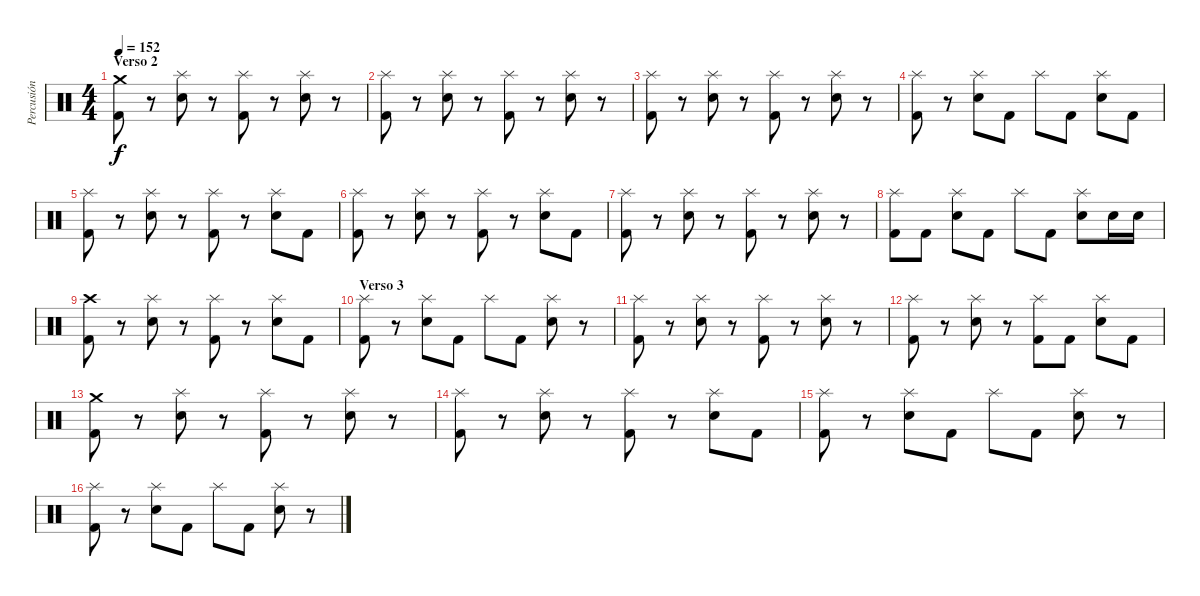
\track ("Percusión" "Percusión") {instrument percussion}
\staff {score}
\articulation defaults
\ts (4 4)
\section ("" "Verso 2")
\tempo 152
\clef neutral
\ks c
("Crash medium (hit)" "Kick (hit) 2").8{dy f} r.8 ("Splash (hit)" "Snare (hit) 2").8 r.8 ("Splash (hit)" "Kick (hit) 2").8 r.8 ("Splash (hit)" "Snare (hit) 2").8 r.8 |
("Splash (hit)" "Kick (hit) 2").8 r.8 ("Splash (hit)" "Snare (hit) 2").8 r.8 ("Splash (hit)" "Kick (hit) 2").8 r.8 ("Splash (hit)" "Snare (hit) 2").8 r.8 |
("Splash (hit)" "Kick (hit) 2").8 r.8 ("Splash (hit)" "Snare (hit) 2").8 r.8 ("Splash (hit)" "Kick (hit) 2").8 r.8 ("Splash (hit)" "Snare (hit) 2").8 r.8 |
("Splash (hit)" "Kick (hit) 2").8 r.8 ("Splash (hit)" "Snare (hit) 2").8 "Kick (hit) 2".8 "Splash (hit)".8 "Kick (hit) 2".8 ("Splash (hit)" "Snare (hit) 2").8 "Kick (hit) 2".8 |
("Splash (hit)" "Kick (hit) 2").8 r.8 ("Splash (hit)" "Snare (hit) 2").8 r.8 ("Splash (hit)" "Kick (hit) 2").8 r.8 ("Splash (hit)" "Snare (hit) 2").8 "Kick (hit) 2".8 |
("Splash (hit)" "Kick (hit) 2").8 r.8 ("Splash (hit)" "Snare (hit) 2").8 r.8 ("Splash (hit)" "Kick (hit) 2").8 r.8 ("Splash (hit)" "Snare (hit) 2").8 "Kick (hit) 2".8 |
("Splash (hit)" "Kick (hit) 2").8 r.8 ("Splash (hit)" "Snare (hit) 2").8 r.8 ("Splash (hit)" "Kick (hit) 2").8 r.8 ("Splash (hit)" "Snare (hit) 2").8 r.8 |
("Splash (hit)" "Kick (hit) 2").8 "Kick (hit) 2".8 ("Splash (hit)" "Snare (hit) 2").8 "Kick (hit) 2".8 "Splash (hit)".8 "Kick (hit) 2".8 ("Splash (hit)" "Snare (hit) 2").8 "Snare (hit) 2".16 "Snare (hit) 2".16 |
("Crash high (hit)" "Kick (hit) 2").8 r.8 ("Splash (hit)" "Snare (hit) 2").8 r.8 ("Splash (hit)" "Kick (hit) 2").8 r.8 ("Splash (hit)" "Snare (hit) 2").8 "Kick (hit) 2".8 |
\section ("" "Verso 3")
("Splash (hit)" "Kick (hit) 2").8 r.8 ("Splash (hit)" "Snare (hit) 2").8 "Kick (hit) 2".8 "Splash (hit)".8 "Kick (hit) 2".8 ("Splash (hit)" "Snare (hit) 2").8 r.8 |
("Splash (hit)" "Kick (hit) 2").8 r.8 ("Splash (hit)" "Snare (hit) 2").8 r.8 ("Splash (hit)" "Kick (hit) 2").8 r.8 ("Splash (hit)" "Snare (hit) 2").8 r.8 |
("Splash (hit)" "Kick (hit) 2").8 r.8 ("Splash (hit)" "Snare (hit) 2").8 r.8 ("Splash (hit)" "Kick (hit) 2").8 "Kick (hit) 2".8 ("Splash (hit)" "Snare (hit) 2").8 "Kick (hit) 2".8 |
("Crash medium (hit)" "Kick (hit) 2").8 r.8 ("Splash (hit)" "Snare (hit) 2").8 r.8 ("Splash (hit)" "Kick (hit) 2").8 r.8 ("Splash (hit)" "Snare (hit) 2").8 r.8 |
("Splash (hit)" "Kick (hit) 2").8 r.8 ("Splash (hit)" "Snare (hit) 2").8 r.8 ("Splash (hit)" "Kick (hit) 2").8 r.8 ("Splash (hit)" "Snare (hit) 2").8 "Kick (hit) 2".8 |
("Splash (hit)" "Kick (hit) 2").8 r.8 ("Splash (hit)" "Snare (hit) 2").8 "Kick (hit) 2".8 "Splash (hit)".8 "Kick (hit) 2".8 ("Splash (hit)" "Snare (hit) 2").8 r.8 |
("Splash (hit)" "Kick (hit) 2").8 r.8 ("Splash (hit)" "Snare (hit) 2").8 "Kick (hit) 2".8 "Splash (hit)".8 "Kick (hit) 2".8 ("Splash (hit)" "Snare (hit) 2").8 r.8
